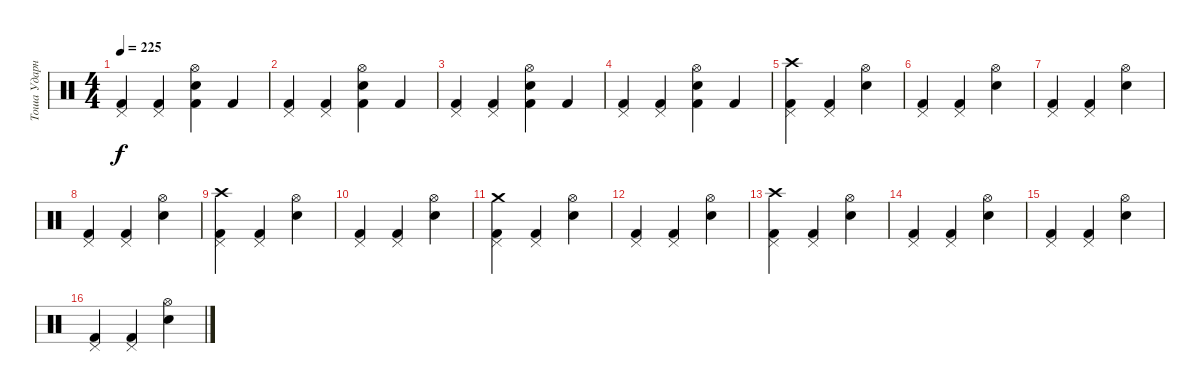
\track ("Тоша Ударные" "Тоша Ударн") {instrument percussion}
\staff {score}
\articulation defaults
\ts (4 4)
\tempo 225
\clef neutral
\ks c
("Pedal Hi-Hat (hit)" "Kick (hit) 2").4{dy f} ("Pedal Hi-Hat (hit)" "Kick (hit) 2").4 ("Electric Snare (hit)" "Hi-Hat (open)" "Kick (hit) 2").4 "Kick (hit) 2".4 |
("Pedal Hi-Hat (hit)" "Kick (hit) 2").4 ("Pedal Hi-Hat (hit)" "Kick (hit) 2").4 ("Electric Snare (hit)" "Hi-Hat (open)" "Kick (hit) 2").4 "Kick (hit) 2".4 |
("Pedal Hi-Hat (hit)" "Kick (hit) 2").4 ("Pedal Hi-Hat (hit)" "Kick (hit) 2").4 ("Electric Snare (hit)" "Hi-Hat (open)" "Kick (hit) 2").4 "Kick (hit) 2".4 |
("Pedal Hi-Hat (hit)" "Kick (hit) 2").4 ("Pedal Hi-Hat (hit)" "Kick (hit) 2").4 ("Electric Snare (hit)" "Hi-Hat (open)" "Kick (hit) 2").4 "Kick (hit) 2".4 |
("Pedal Hi-Hat (hit)" "Crash high (hit)" "Kick (hit) 2").4 ("Pedal Hi-Hat (hit)" "Kick (hit) 2").4 ("Hi-Hat (open)" "Electric Snare (hit)").4 |
("Pedal Hi-Hat (hit)" "Kick (hit) 2").4 ("Pedal Hi-Hat (hit)" "Kick (hit) 2").4 ("Hi-Hat (open)" "Electric Snare (hit)").4 |
("Pedal Hi-Hat (hit)" "Kick (hit) 2").4 ("Pedal Hi-Hat (hit)" "Kick (hit) 2").4 ("Hi-Hat (open)" "Electric Snare (hit)").4 |
("Pedal Hi-Hat (hit)" "Kick (hit) 2").4 ("Pedal Hi-Hat (hit)" "Kick (hit) 2").4 ("Hi-Hat (open)" "Electric Snare (hit)").4 |
("Pedal Hi-Hat (hit)" "Crash high (hit)" "Kick (hit) 2").4 ("Pedal Hi-Hat (hit)" "Kick (hit) 2").4 ("Hi-Hat (open)" "Electric Snare (hit)").4 |
("Pedal Hi-Hat (hit)" "Kick (hit) 2").4 ("Pedal Hi-Hat (hit)" "Kick (hit) 2").4 ("Hi-Hat (open)" "Electric Snare (hit)").4 |
("Pedal Hi-Hat (hit)" "Crash medium (hit)" "Kick (hit) 2").4 ("Pedal Hi-Hat (hit)" "Kick (hit) 2").4 ("Hi-Hat (open)" "Electric Snare (hit)").4 |
("Pedal Hi-Hat (hit)" "Kick (hit) 2").4 ("Pedal Hi-Hat (hit)" "Kick (hit) 2").4 ("Hi-Hat (open)" "Electric Snare (hit)").4 |
("Pedal Hi-Hat (hit)" "Crash high (hit)" "Kick (hit) 2").4 ("Pedal Hi-Hat (hit)" "Kick (hit) 2").4 ("Hi-Hat (open)" "Electric Snare (hit)").4 |
("Pedal Hi-Hat (hit)" "Kick (hit) 2").4 ("Pedal Hi-Hat (hit)" "Kick (hit) 2").4 ("Hi-Hat (open)" "Electric Snare (hit)").4 |
("Pedal Hi-Hat (hit)" "Kick (hit) 2").4 ("Pedal Hi-Hat (hit)" "Kick (hit) 2").4 ("Hi-Hat (open)" "Electric Snare (hit)").4 |
("Pedal Hi-Hat (hit)" "Kick (hit) 2").4 ("Pedal Hi-Hat (hit)" "Kick (hit) 2").4 ("Hi-Hat (open)" "Electric Snare (hit)").4
